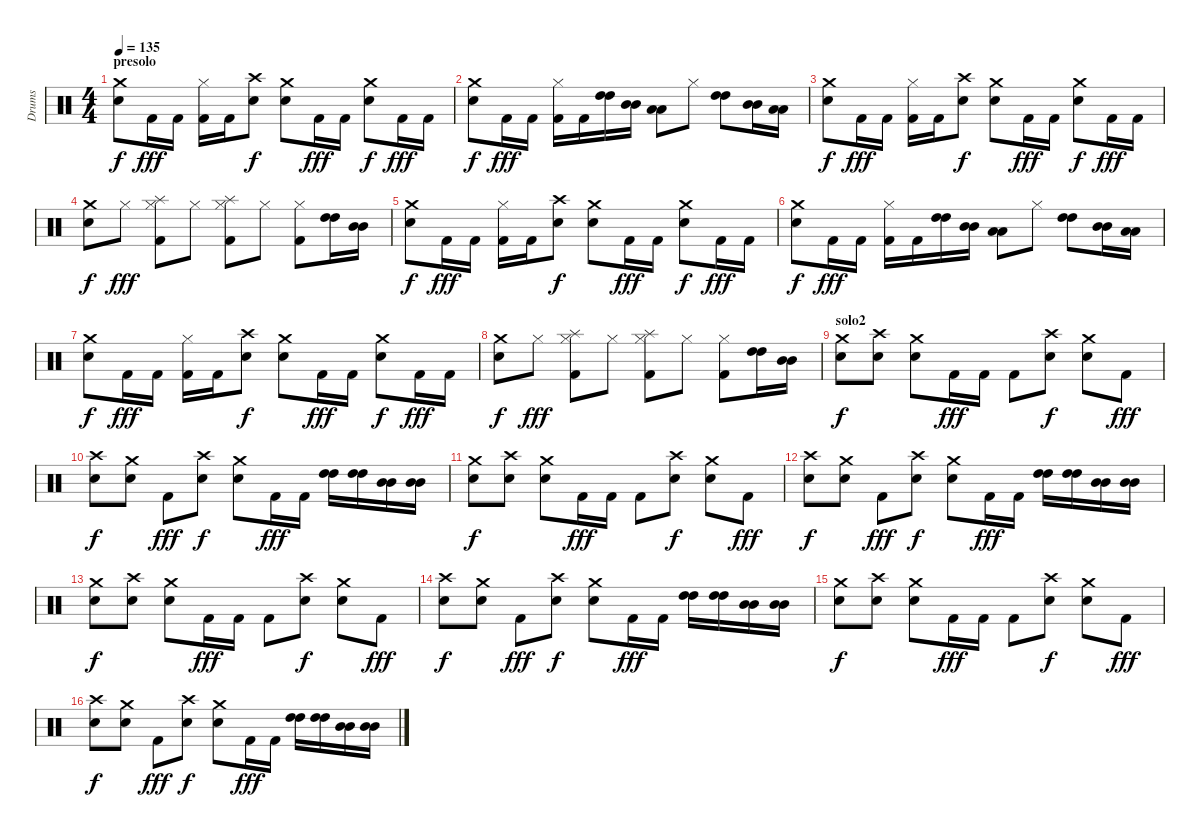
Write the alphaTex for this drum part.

\track ("Drums" "Drums") {instrument percussion}
\staff {score}
\articulation defaults
\ts (4 4)
\section ("" "presolo")
\tempo 135
\clef neutral
\ks c
("Crash medium (hit)" "Electric Snare (hit)").8{dy f} "Kick (hit) 2".16{dy fff} "Kick (hit) 2".16 ("Hi-Hat (closed)" "Kick (hit) 2").16 "Kick (hit) 2".16 ("Crash high (hit)" "Electric Snare (hit)").8{dy f} ("Crash medium (hit)" "Electric Snare (hit)").8 "Kick (hit) 2".16{dy fff} "Kick (hit) 2".16 ("Crash medium (hit)" "Electric Snare (hit)").8{dy f} "Kick (hit) 2".16{dy fff} "Kick (hit) 2".16 |
("Crash medium (hit)" "Electric Snare (hit)").8{dy f} "Kick (hit) 2".16{dy fff} "Kick (hit) 2".16 ("Hi-Hat (closed)" "Kick (hit) 2").16 "Kick (hit) 2".16 ("High Tom (hit)" "High Tom (hit)").16 ("Mid Tom (hit)" "Mid Tom (hit)").16 ("Low Tom (hit)" "Low Tom (hit)").8 "Hi-Hat (closed)".8 ("High Tom (hit)" "High Tom (hit)").8 ("Mid Tom (hit)" "Mid Tom (hit)").16 ("Low Tom (hit)" "Low Tom (hit)").16 |
("Crash medium (hit)" "Electric Snare (hit)").8{dy f} "Kick (hit) 2".16{dy fff} "Kick (hit) 2".16 ("Hi-Hat (closed)" "Kick (hit) 2").16 "Kick (hit) 2".16 ("Crash high (hit)" "Electric Snare (hit)").8{dy f} ("Crash medium (hit)" "Electric Snare (hit)").8 "Kick (hit) 2".16{dy fff} "Kick (hit) 2".16 ("Crash medium (hit)" "Electric Snare (hit)").8{dy f} "Kick (hit) 2".16{dy fff} "Kick (hit) 2".16 |
("Crash medium (hit)" "Electric Snare (hit)").8{dy f} "Hi-Hat (closed)".8{dy fff} ("Splash (hit)" "Kick (hit) 2" "Hi-Hat (closed)").8 "Hi-Hat (closed)".8 ("Splash (hit)" "Kick (hit) 2" "Hi-Hat (closed)").8 "Hi-Hat (closed)".8 ("Kick (hit) 2" "Hi-Hat (closed)").8 ("High Tom (hit)" "High Tom (hit)").16 ("Mid Tom (hit)" "Mid Tom (hit)").16 |
("Crash medium (hit)" "Electric Snare (hit)").8{dy f} "Kick (hit) 2".16{dy fff} "Kick (hit) 2".16 ("Hi-Hat (closed)" "Kick (hit) 2").16 "Kick (hit) 2".16 ("Crash high (hit)" "Electric Snare (hit)").8{dy f} ("Crash medium (hit)" "Electric Snare (hit)").8 "Kick (hit) 2".16{dy fff} "Kick (hit) 2".16 ("Crash medium (hit)" "Electric Snare (hit)").8{dy f} "Kick (hit) 2".16{dy fff} "Kick (hit) 2".16 |
("Crash medium (hit)" "Electric Snare (hit)").8{dy f} "Kick (hit) 2".16{dy fff} "Kick (hit) 2".16 ("Hi-Hat (closed)" "Kick (hit) 2").16 "Kick (hit) 2".16 ("High Tom (hit)" "High Tom (hit)").16 ("Mid Tom (hit)" "Mid Tom (hit)").16 ("Low Tom (hit)" "Low Tom (hit)").8 "Hi-Hat (closed)".8 ("High Tom (hit)" "High Tom (hit)").8 ("Mid Tom (hit)" "Mid Tom (hit)").16 ("Low Tom (hit)" "Low Tom (hit)").16 |
("Crash medium (hit)" "Electric Snare (hit)").8{dy f} "Kick (hit) 2".16{dy fff} "Kick (hit) 2".16 ("Hi-Hat (closed)" "Kick (hit) 2").16 "Kick (hit) 2".16 ("Crash high (hit)" "Electric Snare (hit)").8{dy f} ("Crash medium (hit)" "Electric Snare (hit)").8 "Kick (hit) 2".16{dy fff} "Kick (hit) 2".16 ("Crash medium (hit)" "Electric Snare (hit)").8{dy f} "Kick (hit) 2".16{dy fff} "Kick (hit) 2".16 |
("Crash medium (hit)" "Electric Snare (hit)").8{dy f} "Hi-Hat (closed)".8{dy fff} ("Splash (hit)" "Kick (hit) 2" "Hi-Hat (closed)").8 "Hi-Hat (closed)".8 ("Splash (hit)" "Kick (hit) 2" "Hi-Hat (closed)").8 "Hi-Hat (closed)".8 ("Kick (hit) 2" "Hi-Hat (closed)").8 ("High Tom (hit)" "High Tom (hit)").16 ("Mid Tom (hit)" "Mid Tom (hit)").16 |
\section ("" "solo2")
("Crash medium (hit)" "Electric Snare (hit)").8{dy f} ("Electric Snare (hit)" "Crash high (hit)").8 ("Crash medium (hit)" "Electric Snare (hit)").8 "Kick (hit) 2".16{dy fff} "Kick (hit) 2".16 "Kick (hit) 2".8 ("Electric Snare (hit)" "Crash high (hit)").8{dy f} ("Crash medium (hit)" "Electric Snare (hit)").8 "Kick (hit) 2".8{dy fff} |
("Electric Snare (hit)" "Crash high (hit)").8{dy f} ("Crash medium (hit)" "Electric Snare (hit)").8 "Kick (hit) 2".8{dy fff} ("Electric Snare (hit)" "Crash high (hit)").8{dy f} ("Crash medium (hit)" "Electric Snare (hit)").8 "Kick (hit) 2".16{dy fff} "Kick (hit) 2".16 ("High Tom (hit)" "High Tom (hit)").16 ("High Tom (hit)" "High Tom (hit)").16 ("Mid Tom (hit)" "Mid Tom (hit)").16 ("Mid Tom (hit)" "Mid Tom (hit)").16 |
("Crash medium (hit)" "Electric Snare (hit)").8{dy f} ("Electric Snare (hit)" "Crash high (hit)").8 ("Crash medium (hit)" "Electric Snare (hit)").8 "Kick (hit) 2".16{dy fff} "Kick (hit) 2".16 "Kick (hit) 2".8 ("Electric Snare (hit)" "Crash high (hit)").8{dy f} ("Crash medium (hit)" "Electric Snare (hit)").8 "Kick (hit) 2".8{dy fff} |
("Electric Snare (hit)" "Crash high (hit)").8{dy f} ("Crash medium (hit)" "Electric Snare (hit)").8 "Kick (hit) 2".8{dy fff} ("Electric Snare (hit)" "Crash high (hit)").8{dy f} ("Crash medium (hit)" "Electric Snare (hit)").8 "Kick (hit) 2".16{dy fff} "Kick (hit) 2".16 ("High Tom (hit)" "High Tom (hit)").16 ("High Tom (hit)" "High Tom (hit)").16 ("Mid Tom (hit)" "Mid Tom (hit)").16 ("Mid Tom (hit)" "Mid Tom (hit)").16 |
("Crash medium (hit)" "Electric Snare (hit)").8{dy f} ("Electric Snare (hit)" "Crash high (hit)").8 ("Crash medium (hit)" "Electric Snare (hit)").8 "Kick (hit) 2".16{dy fff} "Kick (hit) 2".16 "Kick (hit) 2".8 ("Electric Snare (hit)" "Crash high (hit)").8{dy f} ("Crash medium (hit)" "Electric Snare (hit)").8 "Kick (hit) 2".8{dy fff} |
("Electric Snare (hit)" "Crash high (hit)").8{dy f} ("Crash medium (hit)" "Electric Snare (hit)").8 "Kick (hit) 2".8{dy fff} ("Electric Snare (hit)" "Crash high (hit)").8{dy f} ("Crash medium (hit)" "Electric Snare (hit)").8 "Kick (hit) 2".16{dy fff} "Kick (hit) 2".16 ("High Tom (hit)" "High Tom (hit)").16 ("High Tom (hit)" "High Tom (hit)").16 ("Mid Tom (hit)" "Mid Tom (hit)").16 ("Mid Tom (hit)" "Mid Tom (hit)").16 |
("Crash medium (hit)" "Electric Snare (hit)").8{dy f} ("Electric Snare (hit)" "Crash high (hit)").8 ("Crash medium (hit)" "Electric Snare (hit)").8 "Kick (hit) 2".16{dy fff} "Kick (hit) 2".16 "Kick (hit) 2".8 ("Electric Snare (hit)" "Crash high (hit)").8{dy f} ("Crash medium (hit)" "Electric Snare (hit)").8 "Kick (hit) 2".8{dy fff} |
("Electric Snare (hit)" "Crash high (hit)").8{dy f} ("Crash medium (hit)" "Electric Snare (hit)").8 "Kick (hit) 2".8{dy fff} ("Electric Snare (hit)" "Crash high (hit)").8{dy f} ("Crash medium (hit)" "Electric Snare (hit)").8 "Kick (hit) 2".16{dy fff} "Kick (hit) 2".16 ("High Tom (hit)" "High Tom (hit)").16 ("High Tom (hit)" "High Tom (hit)").16 ("Mid Tom (hit)" "Mid Tom (hit)").16 ("Mid Tom (hit)" "Mid Tom (hit)").16
